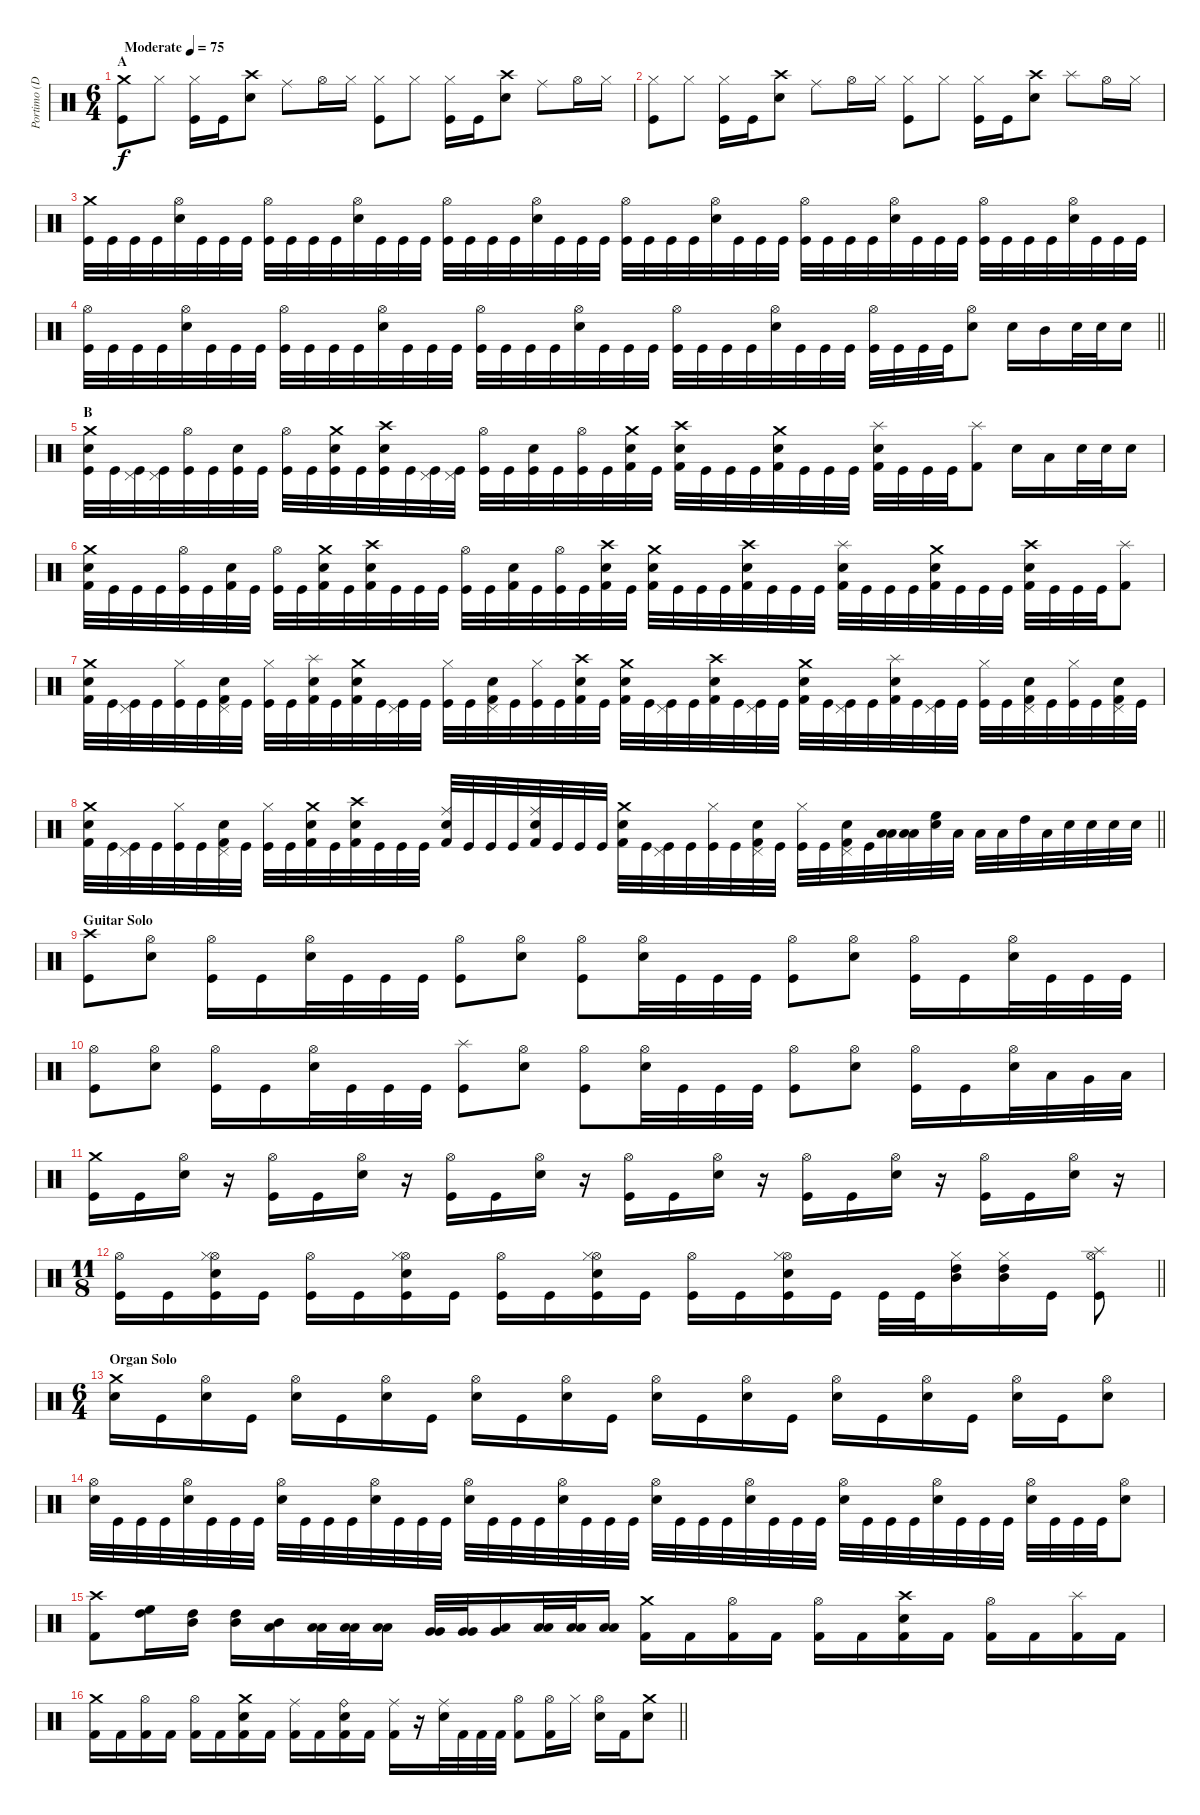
\track ("Portimo (Dums)" "Portimo (D") {instrument percussion}
\staff {score}
\articulation defaults
\ts (6 4)
\section ("" "A")
\tempo (75 "Moderate")
\clef neutral
\ks c
("Crash medium (hit)" "Kick (hit)").8{dy f} "Hi-Hat (closed)".8 ("Hi-Hat (closed)" "Kick (hit)").16 "Kick (hit)".16 ("Crash high (hit)" "Snare (hit) 2").8 "Ride (middle)".8 "Hi-Hat (open)".16 "Hi-Hat (closed)".16 ("Hi-Hat (closed)" "Kick (hit)").8 "Hi-Hat (closed)".8 ("Hi-Hat (closed)" "Kick (hit)").16 "Kick (hit)".16 ("Crash high (hit)" "Snare (hit) 2").8 "Ride (middle)".8 "Hi-Hat (open)".16 "Hi-Hat (closed)".16 |
("Hi-Hat (closed)" "Kick (hit)").8 "Hi-Hat (closed)".8 ("Hi-Hat (closed)" "Kick (hit)").16 "Kick (hit)".16 ("Crash high (hit)" "Snare (hit) 2").8 "Ride (middle)".8 "Hi-Hat (open)".16 "Hi-Hat (closed)".16 ("Hi-Hat (closed)" "Kick (hit)").8 "Hi-Hat (closed)".8 ("Hi-Hat (closed)" "Kick (hit)").16 "Kick (hit)".16 ("Crash high (hit)" "Snare (hit) 2").8 "Splash (hit)".8 "Hi-Hat (open)".16 "Hi-Hat (closed)".16 |
("Crash medium (hit)" "Kick (hit)").32 "Kick (hit)".32 "Kick (hit)".32 "Kick (hit)".32 ("Hi-Hat (open)" "Snare (hit) 2").32 "Kick (hit)".32 "Kick (hit)".32 "Kick (hit)".32 ("Hi-Hat (open)" "Kick (hit)").32 "Kick (hit)".32 "Kick (hit)".32 "Kick (hit)".32 ("Hi-Hat (open)" "Snare (hit) 2").32 "Kick (hit)".32 "Kick (hit)".32 "Kick (hit)".32 ("Hi-Hat (open)" "Kick (hit)").32 "Kick (hit)".32 "Kick (hit)".32 "Kick (hit)".32 ("Hi-Hat (open)" "Snare (hit) 2").32 "Kick (hit)".32 "Kick (hit)".32 "Kick (hit)".32 ("Hi-Hat (open)" "Kick (hit)").32 "Kick (hit)".32 "Kick (hit)".32 "Kick (hit)".32 ("Hi-Hat (open)" "Snare (hit) 2").32 "Kick (hit)".32 "Kick (hit)".32 "Kick (hit)".32 ("Hi-Hat (open)" "Kick (hit)").32 "Kick (hit)".32 "Kick (hit)".32 "Kick (hit)".32 ("Hi-Hat (open)" "Snare (hit) 2").32 "Kick (hit)".32 "Kick (hit)".32 "Kick (hit)".32 ("Hi-Hat (open)" "Kick (hit)").32 "Kick (hit)".32 "Kick (hit)".32 "Kick (hit)".32 ("Hi-Hat (open)" "Snare (hit) 2").32 "Kick (hit)".32 "Kick (hit)".32 "Kick (hit)".32 |
\barLineRight lightlight
("Hi-Hat (open)" "Kick (hit)").32 "Kick (hit)".32 "Kick (hit)".32 "Kick (hit)".32 ("Hi-Hat (open)" "Snare (hit) 2").32 "Kick (hit)".32 "Kick (hit)".32 "Kick (hit)".32 ("Hi-Hat (open)" "Kick (hit)").32 "Kick (hit)".32 "Kick (hit)".32 "Kick (hit)".32 ("Hi-Hat (open)" "Snare (hit) 2").32 "Kick (hit)".32 "Kick (hit)".32 "Kick (hit)".32 ("Hi-Hat (open)" "Kick (hit)").32 "Kick (hit)".32 "Kick (hit)".32 "Kick (hit)".32 ("Hi-Hat (open)" "Snare (hit) 2").32 "Kick (hit)".32 "Kick (hit)".32 "Kick (hit)".32 ("Hi-Hat (open)" "Kick (hit)").32 "Kick (hit)".32 "Kick (hit)".32 "Kick (hit)".32 ("Hi-Hat (open)" "Snare (hit) 2").32 "Kick (hit)".32 "Kick (hit)".32 "Kick (hit)".32 ("Hi-Hat (open)" "Kick (hit)").32 "Kick (hit)".32 "Kick (hit)".32 "Kick (hit)".32 ("Hi-Hat (open)" "Snare (hit) 2").8 "Snare (hit) 2".16 "Mid Tom (hit)".16 "Snare (hit) 2".32 "Snare (hit) 2".32 "Snare (hit) 2".16 |
\section ("" "B")
("Crash medium (hit)" "Snare (hit) 2" "Kick (hit)").32 "Kick (hit)".32 ("Pedal Hi-Hat (hit)" "Kick (hit)").32 ("Pedal Hi-Hat (hit)" "Kick (hit)").32 ("Hi-Hat (open)" "Kick (hit)").32 "Kick (hit)".32 ("Snare (hit) 2" "Kick (hit)").32 "Kick (hit)".32 ("Hi-Hat (open)" "Kick (hit)").32 "Kick (hit)".32 ("Crash medium (hit)" "Snare (hit) 2" "Kick (hit)").32 "Kick (hit)".32 ("Crash high (hit)" "Snare (hit) 2" "Kick (hit)").32 "Kick (hit)".32 ("Pedal Hi-Hat (hit)" "Kick (hit)").32 ("Pedal Hi-Hat (hit)" "Kick (hit)").32 ("Hi-Hat (open)" "Kick (hit)").32 "Kick (hit)".32 ("Snare (hit) 2" "Kick (hit)").32 "Kick (hit)".32 ("Hi-Hat (open)" "Kick (hit)").32 "Kick (hit)".32 ("Crash medium (hit)" "Snare (hit) 2" "Kick (hit) 2").32 "Kick (hit)".32 ("Crash high (hit)" "Snare (hit) 2" "Kick (hit) 2").32 "Kick (hit)".32 "Kick (hit)".32 "Kick (hit)".32 ("Crash medium (hit)" "Snare (hit) 2" "Kick (hit) 2").32 "Kick (hit)".32 "Kick (hit)".32 "Kick (hit)".32 ("Splash (hit)" "Snare (hit) 2" "Kick (hit) 2").32 "Kick (hit)".32 "Kick (hit)".32 "Kick (hit)".32 ("Splash (hit)" "Kick (hit) 2").8 "Snare (hit) 2".16 "Low Tom (hit)".16 "Snare (hit) 2".32 "Snare (hit) 2".32 "Snare (hit) 2".16 |
("Crash medium (hit)" "Snare (hit) 2" "Kick (hit) 2").32 "Kick (hit)".32 "Kick (hit)".32 "Kick (hit)".32 ("Hi-Hat (open)" "Kick (hit)").32 "Kick (hit)".32 ("Snare (hit) 2" "Kick (hit) 2").32 "Kick (hit)".32 ("Hi-Hat (open)" "Kick (hit)").32 "Kick (hit)".32 ("Crash medium (hit)" "Snare (hit) 2" "Kick (hit) 2").32 "Kick (hit)".32 ("Crash high (hit)" "Snare (hit) 2" "Kick (hit) 2").32 "Kick (hit)".32 "Kick (hit)".32 "Kick (hit)".32 ("Hi-Hat (open)" "Kick (hit)").32 "Kick (hit)".32 ("Snare (hit) 2" "Kick (hit) 2").32 "Kick (hit)".32 ("Hi-Hat (open)" "Kick (hit)").32 "Kick (hit)".32 ("Crash high (hit)" "Snare (hit) 2" "Kick (hit) 2").32 "Kick (hit)".32 ("Crash medium (hit)" "Snare (hit) 2" "Kick (hit) 2").32 "Kick (hit)".32 "Kick (hit)".32 "Kick (hit)".32 ("Crash high (hit)" "Snare (hit) 2" "Kick (hit) 2").32 "Kick (hit)".32 "Kick (hit)".32 "Kick (hit)".32 ("Splash (hit)" "Snare (hit) 2" "Kick (hit) 2").32 "Kick (hit)".32 "Kick (hit)".32 "Kick (hit)".32 ("Crash medium (hit)" "Snare (hit) 2" "Kick (hit) 2").32 "Kick (hit)".32 "Kick (hit)".32 "Kick (hit)".32 ("Crash high (hit)" "Snare (hit) 2" "Kick (hit) 2").32 "Kick (hit)".32 "Kick (hit)".32 "Kick (hit)".32 ("Splash (hit)" "Kick (hit) 2").8 |
("Crash medium (hit)" "Snare (hit) 2" "Kick (hit) 2").32 "Kick (hit)".32 ("Pedal Hi-Hat (hit)" "Kick (hit)").32 "Kick (hit)".32 ("Hi-Hat (closed)" "Kick (hit)").32 "Kick (hit)".32 ("Pedal Hi-Hat (hit)" "Snare (hit) 2" "Kick (hit) 2").32 "Kick (hit)".32 ("Hi-Hat (closed)" "Kick (hit)").32 "Kick (hit)".32 ("Splash (hit)" "Snare (hit) 2" "Kick (hit) 2").32 "Kick (hit)".32 ("Crash medium (hit)" "Snare (hit) 2" "Kick (hit) 2").32 "Kick (hit)".32 ("Pedal Hi-Hat (hit)" "Kick (hit)").32 "Kick (hit)".32 ("Hi-Hat (closed)" "Kick (hit)").32 "Kick (hit)".32 ("Pedal Hi-Hat (hit)" "Snare (hit) 2" "Kick (hit) 2").32 "Kick (hit)".32 ("Hi-Hat (closed)" "Kick (hit)").32 "Kick (hit)".32 ("Crash high (hit)" "Snare (hit) 2" "Kick (hit) 2").32 "Kick (hit)".32 ("Crash medium (hit)" "Snare (hit) 2" "Kick (hit) 2").32 "Kick (hit)".32 ("Pedal Hi-Hat (hit)" "Kick (hit)").32 "Kick (hit)".32 ("Crash high (hit)" "Snare (hit) 2" "Kick (hit) 2").32 "Kick (hit)".32 ("Pedal Hi-Hat (hit)" "Kick (hit)").32 "Kick (hit)".32 ("Crash medium (hit)" "Snare (hit) 2" "Kick (hit) 2").32 "Kick (hit)".32 ("Pedal Hi-Hat (hit)" "Kick (hit)").32 "Kick (hit)".32 ("Splash (hit)" "Snare (hit) 2" "Kick (hit) 2").32 "Kick (hit)".32 ("Pedal Hi-Hat (hit)" "Kick (hit)").32 "Kick (hit)".32 ("Hi-Hat (closed)" "Kick (hit)").32 "Kick (hit)".32 ("Pedal Hi-Hat (hit)" "Snare (hit) 2" "Kick (hit) 2").32 "Kick (hit)".32 ("Hi-Hat (closed)" "Kick (hit)").32 "Kick (hit)".32 ("Pedal Hi-Hat (hit)" "Snare (hit) 2" "Kick (hit) 2").32 "Kick (hit)".32 |
\barLineRight lightlight
("Crash medium (hit)" "Snare (hit) 2" "Kick (hit) 2").32 "Kick (hit)".32 ("Pedal Hi-Hat (hit)" "Kick (hit)").32 "Kick (hit)".32 ("Hi-Hat (closed)" "Kick (hit)").32 "Kick (hit)".32 ("Pedal Hi-Hat (hit)" "Snare (hit) 2" "Kick (hit) 2").32 "Kick (hit)".32 ("Hi-Hat (closed)" "Kick (hit)").32 "Kick (hit)".32 ("Crash medium (hit)" "Snare (hit) 2" "Kick (hit) 2").32 "Kick (hit)".32 ("Crash high (hit)" "Snare (hit) 2" "Kick (hit) 2").32 "Kick (hit)".32 "Kick (hit)".32 "Kick (hit)".32 ("Ride (middle)" "Snare (hit) 2" "Kick (hit) 2").32 "Kick (hit)".32 "Kick (hit)".32 "Kick (hit)".32 ("Ride (middle)" "Snare (hit) 2" "Kick (hit) 2").32 "Kick (hit)".32 "Kick (hit)".32 "Kick (hit)".32 ("Crash medium (hit)" "Snare (hit) 2" "Kick (hit) 2").32 "Kick (hit)".32 ("Pedal Hi-Hat (hit)" "Kick (hit)").32 "Kick (hit)".32 ("Hi-Hat (closed)" "Kick (hit)").32 "Kick (hit)".32 ("Pedal Hi-Hat (hit)" "Snare (hit) 2" "Kick (hit) 2").32 "Kick (hit)".32 ("Hi-Hat (closed)" "Kick (hit)").32 "Kick (hit)".32 ("Pedal Hi-Hat (hit)" "Snare (hit) 2" "Kick (hit) 2").32 "Kick (hit)".32 ("Low Floor Tom (hit)" "Low Tom (hit)").32 ("Low Floor Tom (hit)" "Low Tom (hit)").32 ("Electric Snare (hit)" "High Floor Tom (hit)").32 "Low Tom (hit)".32 "Low Tom (hit)".32 "Low Tom (hit)".32 "High Tom (hit)".32 "Low Tom (hit)".32 "Snare (hit) 2".32 "Snare (hit) 2".32 "Snare (hit) 2".32 "Snare (hit) 2".32 |
\section ("" "Guitar Solo")
("Crash high (hit)" "Kick (hit)").8 ("Hi-Hat (open)" "Snare (hit) 2").8 ("Hi-Hat (open)" "Kick (hit)").16 "Kick (hit)".16 ("Hi-Hat (open)" "Snare (hit) 2").32 "Kick (hit)".32 "Kick (hit)".32 "Kick (hit)".32 ("Hi-Hat (open)" "Kick (hit)").8 ("Hi-Hat (open)" "Snare (hit) 2").8 ("Hi-Hat (open)" "Kick (hit)").8 ("Hi-Hat (open)" "Snare (hit) 2").32 "Kick (hit)".32 "Kick (hit)".32 "Kick (hit)".32 ("Hi-Hat (open)" "Kick (hit)").8 ("Hi-Hat (open)" "Snare (hit) 2").8 ("Hi-Hat (open)" "Kick (hit)").16 "Kick (hit)".16 ("Hi-Hat (open)" "Snare (hit) 2").32 "Kick (hit)".32 "Kick (hit)".32 "Kick (hit)".32 |
("Hi-Hat (open)" "Kick (hit)").8 ("Hi-Hat (open)" "Snare (hit) 2").8 ("Hi-Hat (open)" "Kick (hit)").16 "Kick (hit)".16 ("Hi-Hat (open)" "Snare (hit) 2").32 "Kick (hit)".32 "Kick (hit)".32 "Kick (hit)".32 ("Splash (hit)" "Kick (hit)").8 ("Hi-Hat (open)" "Snare (hit) 2").8 ("Hi-Hat (open)" "Kick (hit)").8 ("Hi-Hat (open)" "Snare (hit) 2").32 "Kick (hit)".32 "Kick (hit)".32 "Kick (hit)".32 ("Hi-Hat (open)" "Kick (hit)").8 ("Hi-Hat (open)" "Snare (hit) 2").8 ("Hi-Hat (open)" "Kick (hit)").16 "Kick (hit)".16 ("Hi-Hat (open)" "Snare (hit) 2").32 "Low Tom (hit)".32 "Very Low Tom (hit)".32 "Low Tom (hit)".32 |
("Crash medium (hit)" "Kick (hit)").16 "Kick (hit)".16 ("Hi-Hat (open)" "Snare (hit) 2").16 r.16 ("Hi-Hat (open)" "Kick (hit)").16 "Kick (hit)".16 ("Hi-Hat (open)" "Snare (hit) 2").16 r.16 ("Hi-Hat (open)" "Kick (hit)").16 "Kick (hit)".16 ("Hi-Hat (open)" "Snare (hit) 2").16 r.16 ("Hi-Hat (open)" "Kick (hit)").16 "Kick (hit)".16 ("Hi-Hat (open)" "Snare (hit) 2").16 r.16 ("Hi-Hat (open)" "Kick (hit)").16 "Kick (hit)".16 ("Hi-Hat (open)" "Snare (hit) 2").16 r.16 ("Hi-Hat (open)" "Kick (hit)").16 "Kick (hit)".16 ("Hi-Hat (open)" "Snare (hit) 2").16 r.16 |
\ts (11 8)
\barLineRight lightlight
("Hi-Hat (open)" "Kick (hit)").16 "Kick (hit)".16 ("Hi-Hat (open)" "Hi-Hat (closed)" "Snare (hit) 2" "Kick (hit)").16 "Kick (hit)".16 ("Hi-Hat (open)" "Kick (hit)").16 "Kick (hit)".16 ("Hi-Hat (open)" "Hi-Hat (closed)" "Snare (hit) 2" "Kick (hit)").16 "Kick (hit)".16 ("Hi-Hat (open)" "Kick (hit)").16 "Kick (hit)".16 ("Hi-Hat (open)" "Hi-Hat (closed)" "Snare (hit) 2" "Kick (hit)").16 "Kick (hit)".16 ("Hi-Hat (open)" "Kick (hit)").16 "Kick (hit)".16 ("Hi-Hat (open)" "Hi-Hat (closed)" "Snare (hit) 2" "Kick (hit)").16 "Kick (hit)".16 "Kick (hit)".32 "Kick (hit)".32 ("Hi-Hat (closed)" "High Tom (hit)" "Mid Tom (hit)").16 ("Hi-Hat (closed)" "High Tom (hit)" "Mid Tom (hit)").16 "Kick (hit)".16 ("Hi-Hat (open)" "Splash (hit)" "Kick (hit)").8 |
\ts (6 4)
\section ("" "Organ Solo")
("Crash medium (hit)" "Snare (hit) 2").16 "Kick (hit)".16 ("Hi-Hat (open)" "Snare (hit) 2").16 "Kick (hit)".16 ("Hi-Hat (open)" "Snare (hit) 2").16 "Kick (hit)".16 ("Hi-Hat (open)" "Snare (hit) 2").16 "Kick (hit)".16 ("Hi-Hat (open)" "Snare (hit) 2").16 "Kick (hit)".16 ("Hi-Hat (open)" "Snare (hit) 2").16 "Kick (hit)".16 ("Hi-Hat (open)" "Snare (hit) 2").16 "Kick (hit)".16 ("Hi-Hat (open)" "Snare (hit) 2").16 "Kick (hit)".16 ("Hi-Hat (open)" "Snare (hit) 2").16 "Kick (hit)".16 ("Hi-Hat (open)" "Snare (hit) 2").16 "Kick (hit)".16 ("Hi-Hat (open)" "Snare (hit) 2").16 "Kick (hit)".16 ("Hi-Hat (open)" "Snare (hit) 2").8 |
("Hi-Hat (open)" "Snare (hit) 2").32 "Kick (hit)".32 "Kick (hit)".32 "Kick (hit)".32 ("Hi-Hat (open)" "Snare (hit) 2").32 "Kick (hit)".32 "Kick (hit)".32 "Kick (hit)".32 ("Hi-Hat (open)" "Snare (hit) 2").32 "Kick (hit)".32 "Kick (hit)".32 "Kick (hit)".32 ("Hi-Hat (open)" "Snare (hit) 2").32 "Kick (hit)".32 "Kick (hit)".32 "Kick (hit)".32 ("Hi-Hat (open)" "Snare (hit) 2").32 "Kick (hit)".32 "Kick (hit)".32 "Kick (hit)".32 ("Hi-Hat (open)" "Snare (hit) 2").32 "Kick (hit)".32 "Kick (hit)".32 "Kick (hit)".32 ("Hi-Hat (open)" "Snare (hit) 2").32 "Kick (hit)".32 "Kick (hit)".32 "Kick (hit)".32 ("Hi-Hat (open)" "Snare (hit) 2").32 "Kick (hit)".32 "Kick (hit)".32 "Kick (hit)".32 ("Hi-Hat (open)" "Snare (hit) 2").32 "Kick (hit)".32 "Kick (hit)".32 "Kick (hit)".32 ("Hi-Hat (open)" "Snare (hit) 2").32 "Kick (hit)".32 "Kick (hit)".32 "Kick (hit)".32 ("Hi-Hat (open)" "Snare (hit) 2").32 "Kick (hit)".32 "Kick (hit)".32 "Kick (hit)".32 ("Hi-Hat (open)" "Snare (hit) 2").8 |
("Crash high (hit)" "Kick (hit) 2").8 ("High Floor Tom (hit)" "High Tom (hit)").16{bd 60} ("High Tom (hit)" "Mid Tom (hit)").16{bd 60} ("High Tom (hit)" "Mid Tom (hit)").16{bd 60} ("Low Tom (hit)" "Mid Tom (hit)").16{bd 60} ("Low Tom (hit)" "Low Tom (hit)").32{bd 60} ("Low Tom (hit)" "Low Tom (hit)").32{bd 60} ("Low Tom (hit)" "Low Tom (hit)").16{bd 60} ("Very Low Tom (hit)" "Very Low Tom (hit)").32{bd 60} ("Very Low Tom (hit)" "Very Low Tom (hit)").32{bd 60} ("Low Floor Tom (hit)" "Very Low Tom (hit)").16{bd 60} ("Low Floor Tom (hit)" "Low Floor Tom (hit)").32{bd 60} ("Low Floor Tom (hit)" "Low Floor Tom (hit)").32{bd 60} ("Low Floor Tom (hit)" "Low Floor Tom (hit)").16{bd 60} ("Crash medium (hit)" "Kick (hit) 2").16 "Kick (hit) 2".16 ("Hi-Hat (open)" "Kick (hit) 2").16 "Kick (hit) 2".16 ("Hi-Hat (open)" "Kick (hit) 2").16 "Kick (hit) 2".16 ("Crash high (hit)" "Snare (hit) 2" "Kick (hit) 2").16 "Kick (hit) 2".16 ("Hi-Hat (open)" "Kick (hit) 2").16 "Kick (hit) 2".16 ("Splash (hit)" "Kick (hit) 2").16 "Kick (hit) 2".16 |
\barLineRight lightlight
("Crash medium (hit)" "Kick (hit) 2").16 "Kick (hit) 2".16 ("Hi-Hat (open)" "Kick (hit) 2").16 "Kick (hit) 2".16 ("Hi-Hat (open)" "Kick (hit) 2").16 "Kick (hit) 2".16 ("Crash medium (hit)" "Snare (hit) 2" "Kick (hit) 2").16 "Kick (hit) 2".16 ("Ride (middle)" "Kick (hit) 2").16 "Kick (hit) 2".16 ("Ride (bell)" "Snare (hit) 2" "Kick (hit) 2").16 "Kick (hit) 2".16 ("Ride (middle)" "Kick (hit) 2").16 r.16 ("Ride (middle)" "Snare (hit) 2").32 "Kick (hit) 2".32 "Kick (hit) 2".32 "Kick (hit) 2".32 ("Hi-Hat (open)" "Kick (hit) 2").8 ("Hi-Hat (open)" "Kick (hit) 2").16 "Hi-Hat (closed)".16 ("Hi-Hat (open)" "Snare (hit) 2").16 "Kick (hit) 2".16 ("Crash medium (hit)" "Snare (hit) 2").8
